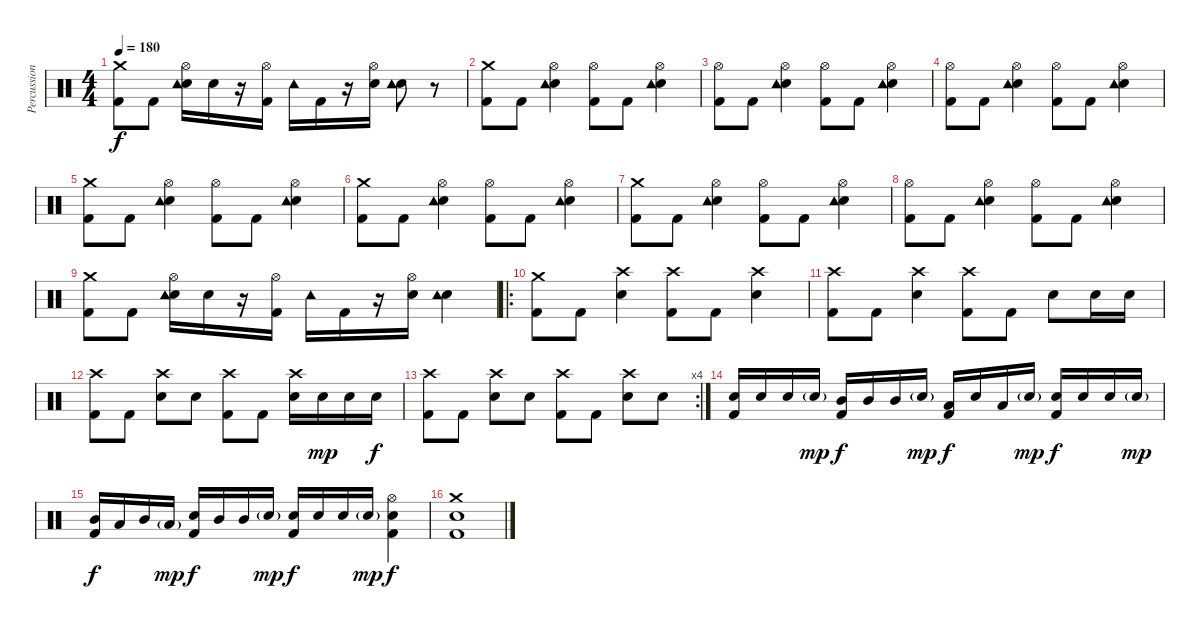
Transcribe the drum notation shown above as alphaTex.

\track ("Percussions" "Percussion") {instrument percussion}
\staff {score}
\articulation defaults
\ts (4 4)
\tempo 180
\clef neutral
\ks c
("Crash medium (hit)" "Kick (hit) 2").8{dy f} "Kick (hit) 2".8 ("Electric Snare (hit)" "Hi-Hat (open)" "Tambourine (hit)").16 "Electric Snare (hit)".16 r.16 ("Hi-Hat (open)" "Kick (hit) 2").16 "Tambourine (hit)".16 "Kick (hit) 2".16 r.16 ("Electric Snare (hit)" "Hi-Hat (open)").16 ("Electric Snare (hit)" "Tambourine (hit)").8 r.8 |
("Crash medium (hit)" "Kick (hit) 2").8 "Kick (hit) 2".8 ("Electric Snare (hit)" "Hi-Hat (open)" "Tambourine (hit)").4 ("Hi-Hat (open)" "Kick (hit) 2").8 "Kick (hit) 2".8 ("Electric Snare (hit)" "Hi-Hat (open)" "Tambourine (hit)").4 |
("Hi-Hat (open)" "Kick (hit) 2").8 "Kick (hit) 2".8 ("Electric Snare (hit)" "Hi-Hat (open)" "Tambourine (hit)").4 ("Hi-Hat (open)" "Kick (hit) 2").8 "Kick (hit) 2".8 ("Electric Snare (hit)" "Hi-Hat (open)" "Tambourine (hit)").4 |
("Hi-Hat (open)" "Kick (hit) 2").8 "Kick (hit) 2".8 ("Electric Snare (hit)" "Hi-Hat (open)" "Tambourine (hit)").4 ("Hi-Hat (open)" "Kick (hit) 2").8 "Kick (hit) 2".8 ("Electric Snare (hit)" "Hi-Hat (open)" "Tambourine (hit)").4 |
("Crash medium (hit)" "Kick (hit) 2").8 "Kick (hit) 2".8 ("Electric Snare (hit)" "Hi-Hat (open)" "Tambourine (hit)").4 ("Hi-Hat (open)" "Kick (hit) 2").8 "Kick (hit) 2".8 ("Electric Snare (hit)" "Hi-Hat (open)" "Tambourine (hit)").4 |
("Crash medium (hit)" "Kick (hit) 2").8 "Kick (hit) 2".8 ("Electric Snare (hit)" "Hi-Hat (open)" "Tambourine (hit)").4 ("Hi-Hat (open)" "Kick (hit) 2").8 "Kick (hit) 2".8 ("Electric Snare (hit)" "Hi-Hat (open)" "Tambourine (hit)").4 |
("Crash medium (hit)" "Kick (hit) 2").8 "Kick (hit) 2".8 ("Electric Snare (hit)" "Hi-Hat (open)" "Tambourine (hit)").4 ("Hi-Hat (open)" "Kick (hit) 2").8 "Kick (hit) 2".8 ("Electric Snare (hit)" "Hi-Hat (open)" "Tambourine (hit)").4 |
("Hi-Hat (open)" "Kick (hit) 2").8 "Kick (hit) 2".8 ("Electric Snare (hit)" "Hi-Hat (open)" "Tambourine (hit)").4 ("Hi-Hat (open)" "Kick (hit) 2").8 "Kick (hit) 2".8 ("Electric Snare (hit)" "Hi-Hat (open)" "Tambourine (hit)").4 |
("Crash medium (hit)" "Kick (hit) 2").8 "Kick (hit) 2".8 ("Electric Snare (hit)" "Hi-Hat (open)" "Tambourine (hit)").16 "Electric Snare (hit)".16 r.16 ("Hi-Hat (open)" "Kick (hit) 2").16 "Tambourine (hit)".16 "Kick (hit) 2".16 r.16 ("Electric Snare (hit)" "Hi-Hat (open)").16 ("Electric Snare (hit)" "Tambourine (hit)").4 |
\ro
("Crash medium (hit)" "Kick (hit) 2").8 "Kick (hit) 2".8 ("Electric Snare (hit)" "Crash high (hit)").4 ("Crash high (hit)" "Kick (hit) 2").8 "Kick (hit) 2".8 ("Electric Snare (hit)" "Crash high (hit)").4 |
("Crash high (hit)" "Kick (hit) 2").8 "Kick (hit) 2".8 ("Electric Snare (hit)" "Crash high (hit)").4 ("Crash high (hit)" "Kick (hit) 2").8 "Kick (hit) 2".8 "Electric Snare (hit)".8 "Electric Snare (hit)".16 "Electric Snare (hit)".16 |
("Crash high (hit)" "Kick (hit) 2").8 "Kick (hit) 2".8 ("Electric Snare (hit)" "Crash high (hit)").8 "Electric Snare (hit)".8 ("Crash high (hit)" "Kick (hit) 2").8 "Kick (hit) 2".8 ("Electric Snare (hit)" "Crash high (hit)").16 "Electric Snare (hit)".16{dy mp} "Electric Snare (hit)".16 "Electric Snare (hit)".16{dy f} |
\rc 4
("Crash high (hit)" "Kick (hit) 2").8 "Kick (hit) 2".8 ("Electric Snare (hit)" "Crash high (hit)").8 "Electric Snare (hit)".8 ("Crash high (hit)" "Kick (hit) 2").8 "Kick (hit) 2".8 ("Electric Snare (hit)" "Crash high (hit)").8 "Electric Snare (hit)".8 |
("Electric Snare (hit)" "Kick (hit) 2").16 "Electric Snare (hit)".16 "Electric Snare (hit)".16 "Electric Snare (hit)"{g}.16{dy mp} ("Mid Tom (hit)" "Kick (hit) 2").16{dy f} "Mid Tom (hit)".16 "Mid Tom (hit)".16 "Electric Snare (hit)"{g}.16{dy mp} ("Low Tom (hit)" "Kick (hit) 2").16{dy f} "Snare (hit) 2".16 "Low Tom (hit)".16 "Snare (hit)"{g}.16{dy mp} ("Electric Snare (hit)" "Kick (hit) 2").16{dy f} "Electric Snare (hit)".16 "Electric Snare (hit)".16 "Electric Snare (hit)"{g}.16{dy mp} |
("Mid Tom (hit)" "Kick (hit) 2").16{dy f} "Low Tom (hit)".16 "Mid Tom (hit)".16 "Low Tom (hit)"{g}.16{dy mp} ("Electric Snare (hit)" "Kick (hit) 2").16{dy f} "Mid Tom (hit)".16 "Mid Tom (hit)".16 "Electric Snare (hit)"{g}.16{dy mp} ("Electric Snare (hit)" "Kick (hit) 2").16{dy f} "Electric Snare (hit)".16 "Electric Snare (hit)".16 "Electric Snare (hit)"{g}.16{dy mp} ("Electric Snare (hit)" "Hi-Hat (open)" "Kick (hit) 2").4{dy f} |
("Snare (hit) 2" "Crash medium (hit)" "Kick (hit) 2").1
